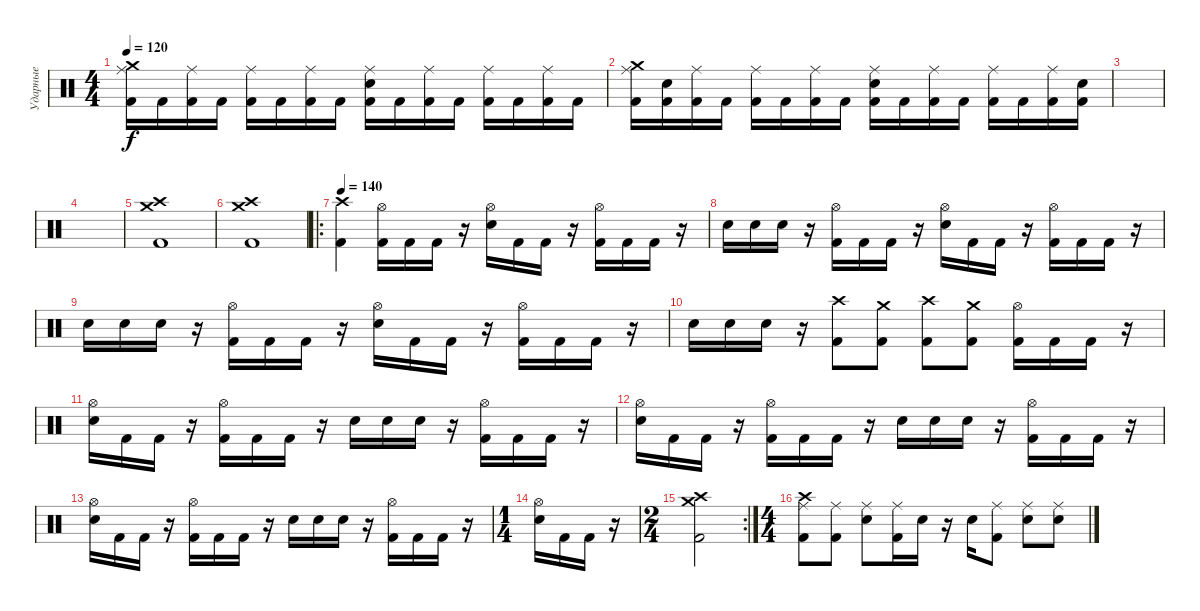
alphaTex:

\track ("Ударные" "Ударные") {instrument percussion}
\staff {score}
\articulation defaults
\ts (4 4)
\tempo 120
\clef neutral
\ks c
("Kick (hit) 2" "Crash medium (hit)" "Ride (middle)").16{dy f} "Kick (hit) 2".16 ("Kick (hit) 2" "Ride (middle)").16 "Kick (hit) 2".16 ("Kick (hit) 2" "Ride (middle)").16 "Kick (hit) 2".16 ("Kick (hit) 2" "Ride (middle)").16 "Kick (hit) 2".16 ("Kick (hit) 2" "Ride (middle)" "Electric Snare (hit)").16 "Kick (hit) 2".16 ("Kick (hit) 2" "Ride (middle)").16 "Kick (hit) 2".16 ("Kick (hit) 2" "Ride (middle)").16 "Kick (hit) 2".16 ("Kick (hit) 2" "Ride (middle)").16 "Kick (hit) 2".16 |
("Kick (hit) 2" "Ride (middle)" "Crash medium (hit)").16 ("Kick (hit) 2" "Electric Snare (hit)").16 ("Kick (hit) 2" "Ride (middle)").16 "Kick (hit) 2".16 ("Kick (hit) 2" "Ride (middle)").16 "Kick (hit) 2".16 ("Kick (hit) 2" "Ride (middle)").16 "Kick (hit) 2".16 ("Kick (hit) 2" "Ride (middle)" "Electric Snare (hit)").16 "Kick (hit) 2".16 ("Kick (hit) 2" "Ride (middle)").16 "Kick (hit) 2".16 ("Kick (hit) 2" "Ride (middle)").16 "Kick (hit) 2".16 ("Kick (hit) 2" "Ride (middle)").16 ("Kick (hit) 2" "Electric Snare (hit)").16 |
|
|
("Kick (hit) 2" "Crash high (hit)" "Crash medium (hit)").1 |
("Kick (hit) 2" "Crash high (hit)" "Crash medium (hit)").1 |
\ro
\tempo 140
("Kick (hit) 2" "Crash high (hit)").4 ("Kick (hit) 2" "Hi-Hat (open)").16 "Kick (hit) 2".16 "Kick (hit) 2".16 r.16 ("Electric Snare (hit)" "Hi-Hat (open)").16 "Kick (hit) 2".16 "Kick (hit) 2".16 r.16 ("Kick (hit) 2" "Hi-Hat (open)").16 "Kick (hit) 2".16 "Kick (hit) 2".16 r.16 |
"Electric Snare (hit)".16 "Electric Snare (hit)".16 "Electric Snare (hit)".16 r.16 ("Kick (hit) 2" "Hi-Hat (open)").16 "Kick (hit) 2".16 "Kick (hit) 2".16 r.16 ("Electric Snare (hit)" "Hi-Hat (open)").16 "Kick (hit) 2".16 "Kick (hit) 2".16 r.16 ("Kick (hit) 2" "Hi-Hat (open)").16 "Kick (hit) 2".16 "Kick (hit) 2".16 r.16 |
"Electric Snare (hit)".16 "Electric Snare (hit)".16 "Electric Snare (hit)".16 r.16 ("Kick (hit) 2" "Hi-Hat (open)").16 "Kick (hit) 2".16 "Kick (hit) 2".16 r.16 ("Electric Snare (hit)" "Hi-Hat (open)").16 "Kick (hit) 2".16 "Kick (hit) 2".16 r.16 ("Kick (hit) 2" "Hi-Hat (open)").16 "Kick (hit) 2".16 "Kick (hit) 2".16 r.16 |
"Electric Snare (hit)".16 "Electric Snare (hit)".16 "Electric Snare (hit)".16 r.16 ("Kick (hit) 2" "Crash high (hit)").8 ("Kick (hit) 2" "Crash medium (hit)").8 ("Kick (hit) 2" "Crash high (hit)").8 ("Kick (hit) 2" "Crash medium (hit)").8 ("Kick (hit) 2" "Hi-Hat (open)").16 "Kick (hit) 2".16 "Kick (hit) 2".16 r.16 |
("Electric Snare (hit)" "Hi-Hat (open)").16 "Kick (hit) 2".16 "Kick (hit) 2".16 r.16 ("Kick (hit) 2" "Hi-Hat (open)").16 "Kick (hit) 2".16 "Kick (hit) 2".16 r.16 "Electric Snare (hit)".16 "Electric Snare (hit)".16 "Electric Snare (hit)".16 r.16 ("Kick (hit) 2" "Hi-Hat (open)").16 "Kick (hit) 2".16 "Kick (hit) 2".16 r.16 |
("Electric Snare (hit)" "Hi-Hat (open)").16 "Kick (hit) 2".16 "Kick (hit) 2".16 r.16 ("Kick (hit) 2" "Hi-Hat (open)").16 "Kick (hit) 2".16 "Kick (hit) 2".16 r.16 "Electric Snare (hit)".16 "Electric Snare (hit)".16 "Electric Snare (hit)".16 r.16 ("Kick (hit) 2" "Hi-Hat (open)").16 "Kick (hit) 2".16 "Kick (hit) 2".16 r.16 |
("Electric Snare (hit)" "Hi-Hat (open)").16 "Kick (hit) 2".16 "Kick (hit) 2".16 r.16 ("Kick (hit) 2" "Hi-Hat (open)").16 "Kick (hit) 2".16 "Kick (hit) 2".16 r.16 "Electric Snare (hit)".16 "Electric Snare (hit)".16 "Electric Snare (hit)".16 r.16 ("Kick (hit) 2" "Hi-Hat (open)").16 "Kick (hit) 2".16 "Kick (hit) 2".16 r.16 |
\ts (1 4)
("Electric Snare (hit)" "Hi-Hat (open)").16 "Kick (hit) 2".16 "Kick (hit) 2".16 r.16 |
\rc 2
\ts (2 4)
("Kick (hit) 2" "Crash high (hit)" "Crash medium (hit)").2 |
\ts (4 4)
("Kick (hit) 2" "Crash high (hit)" "Ride (middle)").8 ("Kick (hit) 2" "Ride (middle)").8 ("Electric Snare (hit)" "Ride (middle)").8 ("Kick (hit) 2" "Ride (middle)").16 "Electric Snare (hit)".16 r.16 "Electric Snare (hit)".16 ("Kick (hit) 2" "Ride (middle)").8 ("Electric Snare (hit)" "Ride (middle)").8 ("Electric Snare (hit)" "Ride (middle)").8
